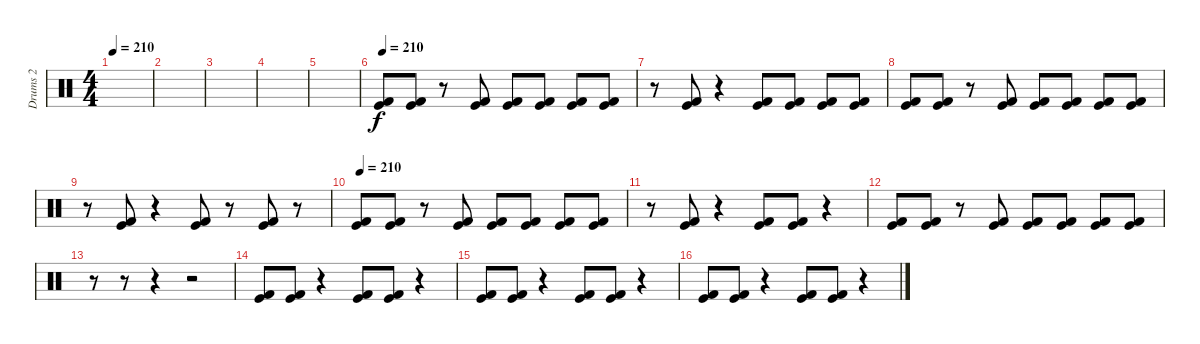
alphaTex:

\track ("Drums 2" "Drums 2") {instrument percussion}
\staff {score}
\articulation defaults
\ts (4 4)
\tempo 210
\clef neutral
\ks c
|
|
|
|
|
\tempo 210
("Kick (hit) 2" "Kick (hit)").8 ("Kick (hit) 2" "Kick (hit)").8 r.8 ("Kick (hit) 2" "Kick (hit)").8 ("Kick (hit) 2" "Kick (hit)").8 ("Kick (hit) 2" "Kick (hit)").8 ("Kick (hit) 2" "Kick (hit)").8 ("Kick (hit) 2" "Kick (hit)").8 |
r.8 ("Kick (hit) 2" "Kick (hit)").8 r.4 ("Kick (hit) 2" "Kick (hit)").8 ("Kick (hit) 2" "Kick (hit)").8 ("Kick (hit) 2" "Kick (hit)").8 ("Kick (hit) 2" "Kick (hit)").8 |
("Kick (hit) 2" "Kick (hit)").8 ("Kick (hit) 2" "Kick (hit)").8 r.8 ("Kick (hit) 2" "Kick (hit)").8 ("Kick (hit) 2" "Kick (hit)").8 ("Kick (hit) 2" "Kick (hit)").8 ("Kick (hit) 2" "Kick (hit)").8 ("Kick (hit) 2" "Kick (hit)").8 |
r.8 ("Kick (hit) 2" "Kick (hit)").8 r.4 ("Kick (hit) 2" "Kick (hit)").8 r.8 ("Kick (hit) 2" "Kick (hit)").8 r.8 |
\tempo 210
("Kick (hit) 2" "Kick (hit)").8 ("Kick (hit) 2" "Kick (hit)").8 r.8 ("Kick (hit) 2" "Kick (hit)").8 ("Kick (hit) 2" "Kick (hit)").8 ("Kick (hit) 2" "Kick (hit)").8 ("Kick (hit) 2" "Kick (hit)").8 ("Kick (hit) 2" "Kick (hit)").8 |
r.8 ("Kick (hit) 2" "Kick (hit)").8 r.4 ("Kick (hit) 2" "Kick (hit)").8 ("Kick (hit) 2" "Kick (hit)").8 r.4 |
("Kick (hit) 2" "Kick (hit)").8 ("Kick (hit) 2" "Kick (hit)").8 r.8 ("Kick (hit) 2" "Kick (hit)").8 ("Kick (hit) 2" "Kick (hit)").8 ("Kick (hit) 2" "Kick (hit)").8 ("Kick (hit) 2" "Kick (hit)").8 ("Kick (hit) 2" "Kick (hit)").8 |
r.8 r.8 r.4 r.2 |
("Kick (hit) 2" "Kick (hit)").8 ("Kick (hit) 2" "Kick (hit)").8 r.4 ("Kick (hit) 2" "Kick (hit)").8 ("Kick (hit) 2" "Kick (hit)").8 r.4 |
("Kick (hit) 2" "Kick (hit)").8 ("Kick (hit) 2" "Kick (hit)").8 r.4 ("Kick (hit) 2" "Kick (hit)").8 ("Kick (hit) 2" "Kick (hit)").8 r.4 |
("Kick (hit) 2" "Kick (hit)").8 ("Kick (hit) 2" "Kick (hit)").8 r.4 ("Kick (hit) 2" "Kick (hit)").8 ("Kick (hit) 2" "Kick (hit)").8 r.4
